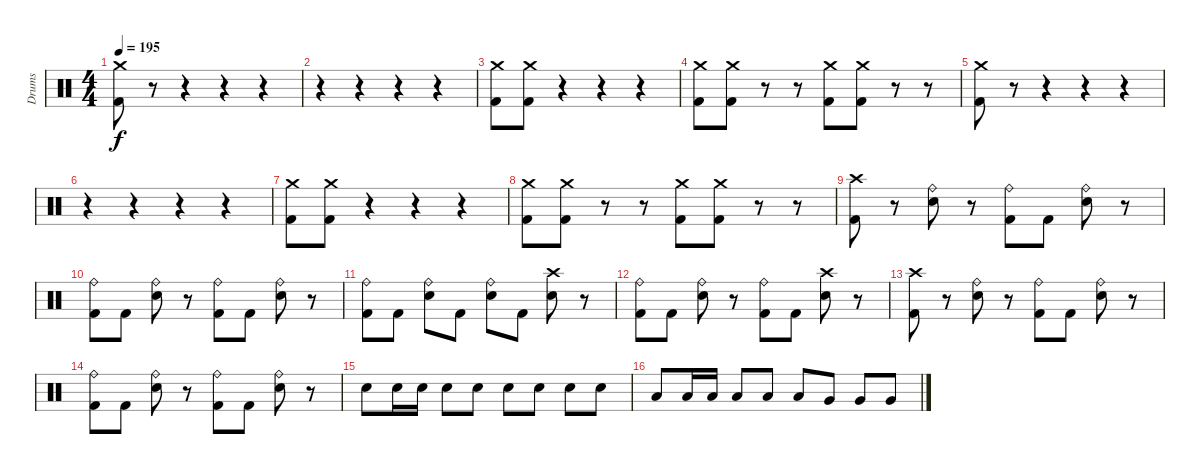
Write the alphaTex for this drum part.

\track ("Drums" "Drums") {instrument percussion}
\staff {score}
\articulation defaults
\ts (4 4)
\tempo 195
\clef neutral
\ks c
("Crash medium (hit)" "Kick (hit) 2").8{dy f} r.8 r.4 r.4 r.4 |
r.4 r.4 r.4 r.4 |
("Crash medium (hit)" "Kick (hit) 2").8 ("Crash medium (hit)" "Kick (hit) 2").8 r.4 r.4 r.4 |
("Crash medium (hit)" "Kick (hit) 2").8 ("Crash medium (hit)" "Kick (hit) 2").8 r.8 r.8 ("Crash medium (hit)" "Kick (hit) 2").8 ("Crash medium (hit)" "Kick (hit) 2").8 r.8 r.8 |
("Crash medium (hit)" "Kick (hit) 2").8 r.8 r.4 r.4 r.4 |
r.4 r.4 r.4 r.4 |
("Crash medium (hit)" "Kick (hit) 2").8 ("Crash medium (hit)" "Kick (hit) 2").8 r.4 r.4 r.4 |
("Crash medium (hit)" "Kick (hit) 2").8 ("Crash medium (hit)" "Kick (hit) 2").8 r.8 r.8 ("Crash medium (hit)" "Kick (hit) 2").8 ("Crash medium (hit)" "Kick (hit) 2").8 r.8 r.8 |
("Crash high (hit)" "Kick (hit) 2").8 r.8 ("Ride (bell)" "Electric Snare (hit)").8 r.8 ("Ride (bell)" "Kick (hit) 2").8 "Kick (hit) 2".8 ("Ride (bell)" "Electric Snare (hit)").8 r.8 |
("Ride (bell)" "Kick (hit) 2").8 "Kick (hit) 2".8 ("Ride (bell)" "Electric Snare (hit)").8 r.8 ("Ride (bell)" "Kick (hit) 2").8 "Kick (hit) 2".8 ("Ride (bell)" "Electric Snare (hit)").8 r.8 |
("Ride (bell)" "Kick (hit) 2").8 "Kick (hit) 2".8 ("Ride (bell)" "Electric Snare (hit)").8 "Kick (hit) 2".8 ("Ride (bell)" "Electric Snare (hit)").8 "Kick (hit) 2".8 ("Crash high (hit)" "Electric Snare (hit)").8 r.8 |
("Ride (bell)" "Kick (hit) 2").8 "Kick (hit) 2".8 ("Ride (bell)" "Electric Snare (hit)").8 r.8 ("Ride (bell)" "Kick (hit) 2").8 "Kick (hit) 2".8 ("Crash high (hit)" "Electric Snare (hit)").8 r.8 |
("Crash high (hit)" "Kick (hit) 2").8 r.8 ("Ride (bell)" "Electric Snare (hit)").8 r.8 ("Ride (bell)" "Kick (hit) 2").8 "Kick (hit) 2".8 ("Ride (bell)" "Electric Snare (hit)").8 r.8 |
("Ride (bell)" "Kick (hit) 2").8 "Kick (hit) 2".8 ("Ride (bell)" "Electric Snare (hit)").8 r.8 ("Ride (bell)" "Kick (hit) 2").8 "Kick (hit) 2".8 ("Ride (bell)" "Electric Snare (hit)").8 r.8 |
"Electric Snare (hit)".8 "Electric Snare (hit)".16 "Electric Snare (hit)".16 "Electric Snare (hit)".8 "Electric Snare (hit)".8 "Electric Snare (hit)".8 "Electric Snare (hit)".8 "Electric Snare (hit)".8 "Electric Snare (hit)".8 |
"Low Tom (hit)".8 "Low Tom (hit)".16 "Low Tom (hit)".16 "Low Tom (hit)".8 "Low Tom (hit)".8 "Low Tom (hit)".8 "Very Low Tom (hit)".8 "Very Low Tom (hit)".8 "Very Low Tom (hit)".8
